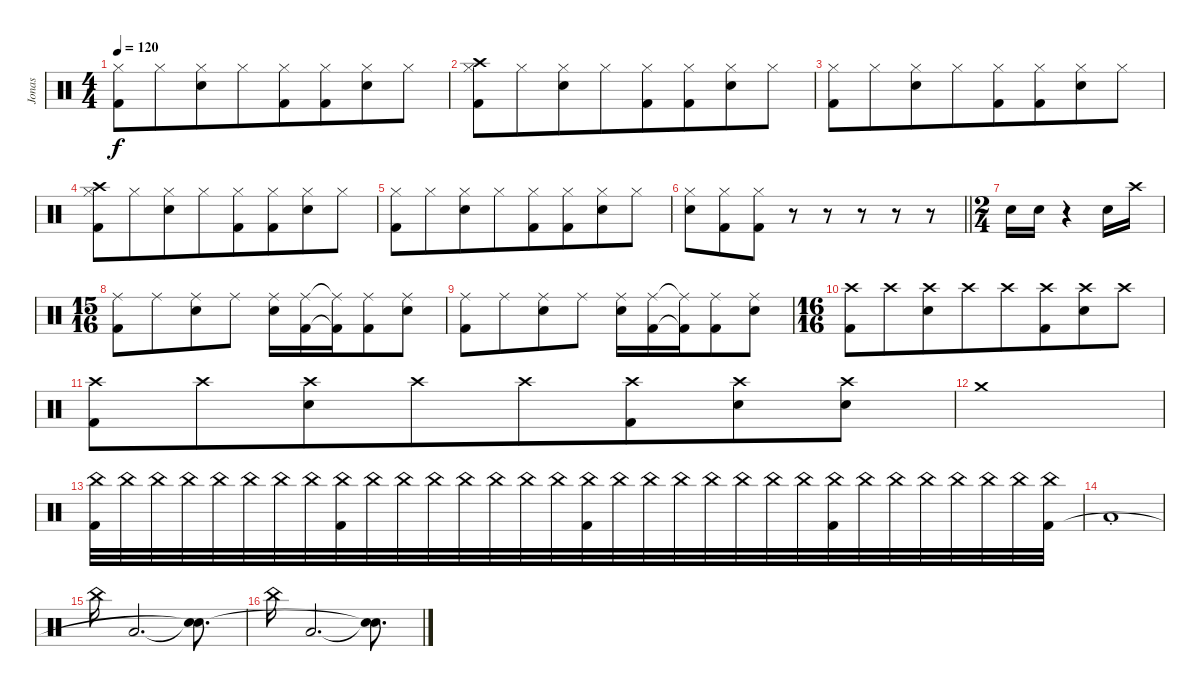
\track ("Jonas" "Jonas") {instrument percussion}
\staff {score}
\articulation defaults
\ts (4 4)
\tempo 120
\clef neutral
\ks c
("Hi-Hat (closed)" "Kick (hit) 2").8{dy f} "Hi-Hat (closed)".8{beam merge} ("Hi-Hat (closed)" "Snare (hit) 2").8 "Hi-Hat (closed)".8{beam merge} ("Hi-Hat (closed)" "Kick (hit) 2").8 ("Hi-Hat (closed)" "Kick (hit) 2").8{beam merge} ("Hi-Hat (closed)" "Snare (hit) 2").8 "Hi-Hat (closed)".8 |
("Crash high (hit)" "Hi-Hat (closed)" "Kick (hit) 2").8 "Hi-Hat (closed)".8{beam merge} ("Hi-Hat (closed)" "Snare (hit) 2").8 "Hi-Hat (closed)".8{beam merge} ("Hi-Hat (closed)" "Kick (hit) 2").8 ("Hi-Hat (closed)" "Kick (hit) 2").8{beam merge} ("Hi-Hat (closed)" "Snare (hit) 2").8 "Hi-Hat (closed)".8 |
("Hi-Hat (closed)" "Kick (hit) 2").8 "Hi-Hat (closed)".8{beam merge} ("Hi-Hat (closed)" "Snare (hit) 2").8 "Hi-Hat (closed)".8{beam merge} ("Hi-Hat (closed)" "Kick (hit) 2").8 ("Hi-Hat (closed)" "Kick (hit) 2").8{beam merge} ("Hi-Hat (closed)" "Snare (hit) 2").8 "Hi-Hat (closed)".8 |
("Crash high (hit)" "Hi-Hat (closed)" "Kick (hit) 2").8 "Hi-Hat (closed)".8{beam merge} ("Hi-Hat (closed)" "Snare (hit) 2").8 "Hi-Hat (closed)".8{beam merge} ("Hi-Hat (closed)" "Kick (hit) 2").8 ("Hi-Hat (closed)" "Kick (hit) 2").8{beam merge} ("Hi-Hat (closed)" "Snare (hit) 2").8 "Hi-Hat (closed)".8 |
("Hi-Hat (closed)" "Kick (hit) 2").8 "Hi-Hat (closed)".8{beam merge} ("Hi-Hat (closed)" "Snare (hit) 2").8 "Hi-Hat (closed)".8{beam merge} ("Hi-Hat (closed)" "Kick (hit) 2").8 ("Hi-Hat (closed)" "Kick (hit) 2").8{beam merge} ("Hi-Hat (closed)" "Snare (hit) 2").8 "Hi-Hat (closed)".8 |
\barLineRight lightlight
("Hi-Hat (closed)" "Snare (hit) 2").8 ("Hi-Hat (closed)" "Kick (hit) 2").8{beam merge} ("Hi-Hat (closed)" "Kick (hit) 2").8 r.8 r.8 r.8 r.8 r.8 |
\ts (2 4)
"Snare (hit) 2".16 "Snare (hit) 2".16 r.4 "Snare (hit) 2".16 "Crash high (hit)".16 |
\ts (15 16)
("Ride (middle)" "Kick (hit) 2").8 "Ride (middle)".8{beam merge} ("Ride (middle)" "Snare (hit) 2").8{beam merge} "Ride (middle)".8 ("Ride (middle)" "Snare (hit) 2").16{beam merge} ("Ride (middle)" "Kick (hit) 2").16 ("Ride (middle)"{t} "Kick (hit) 2"{t}).16 ("Ride (middle)" "Kick (hit) 2").8{beam merge} ("Ride (middle)" "Snare (hit) 2").8 |
("Ride (middle)" "Kick (hit) 2").8 "Ride (middle)".8{beam merge} ("Ride (middle)" "Snare (hit) 2").8{beam merge} "Ride (middle)".8 ("Ride (middle)" "Snare (hit) 2").16{beam merge} ("Ride (middle)" "Kick (hit) 2").16 ("Ride (middle)"{t} "Kick (hit) 2"{t}).16 ("Ride (middle)" "Kick (hit) 2").8{beam merge} ("Ride (middle)" "Snare (hit) 2").8 |
\ts (16 16)
("Crash high (hit)" "Kick (hit) 2").8{beam merge} "Crash high (hit)".8{beam merge} ("Crash high (hit)" "Snare (hit) 2").8{beam merge} "Crash high (hit)".8{beam merge} "Crash high (hit)".8{beam merge} ("Crash high (hit)" "Kick (hit) 2").8{beam merge} ("Crash high (hit)" "Snare (hit) 2").8{beam merge} "Crash high (hit)".8 |
("Crash high (hit)" "Kick (hit) 2").8{beam merge} "Crash high (hit)".8{beam merge} ("Crash high (hit)" "Snare (hit) 2").8{beam merge} "Crash high (hit)".8{beam merge} "Crash high (hit)".8{beam merge} ("Crash high (hit)" "Kick (hit) 2").8{beam merge} ("Crash high (hit)" "Snare (hit) 2").8{beam merge} ("Crash high (hit)" "Snare (hit) 2").8 |
"Crash medium (hit)".1 |
("China (hit)" "Kick (hit) 2").32{beam merge} "China (hit)".32{beam merge} "China (hit)".32{beam merge} "China (hit)".32{beam merge} "China (hit)".32{beam merge} "China (hit)".32{beam merge} "China (hit)".32{beam merge} "China (hit)".32{beam merge} ("China (hit)" "Kick (hit) 2").32{beam merge} "China (hit)".32{beam merge} "China (hit)".32{beam merge} "China (hit)".32{beam merge} "China (hit)".32{beam merge} "China (hit)".32{beam merge} "China (hit)".32{beam merge} "China (hit)".32{beam merge} ("China (hit)" "Kick (hit) 2").32{beam merge} "China (hit)".32{beam merge} "China (hit)".32{beam merge} "China (hit)".32{beam merge} "China (hit)".32{beam merge} "China (hit)".32{beam merge} "China (hit)".32{beam merge} "China (hit)".32{beam merge} ("China (hit)" "Kick (hit) 2").32{beam merge} "China (hit)".32{beam merge} "China (hit)".32{beam merge} "China (hit)".32{beam merge} "China (hit)".32{beam merge} "China (hit)".32{beam merge} "China (hit)".32{beam merge} ("China (hit)" "Kick (hit) 2").32 |
"Low Floor Tom (hit)"{st}.1 |
"China (hit)".16 "Low Floor Tom (hit)".2{d} ("Snare (hit)"{t} "Snare (hit)"{t}).8{d} |
"China (hit)".16 "Low Floor Tom (hit)".2{d} ("Snare (hit)"{t} "Snare (hit)"{t}).8{d}
